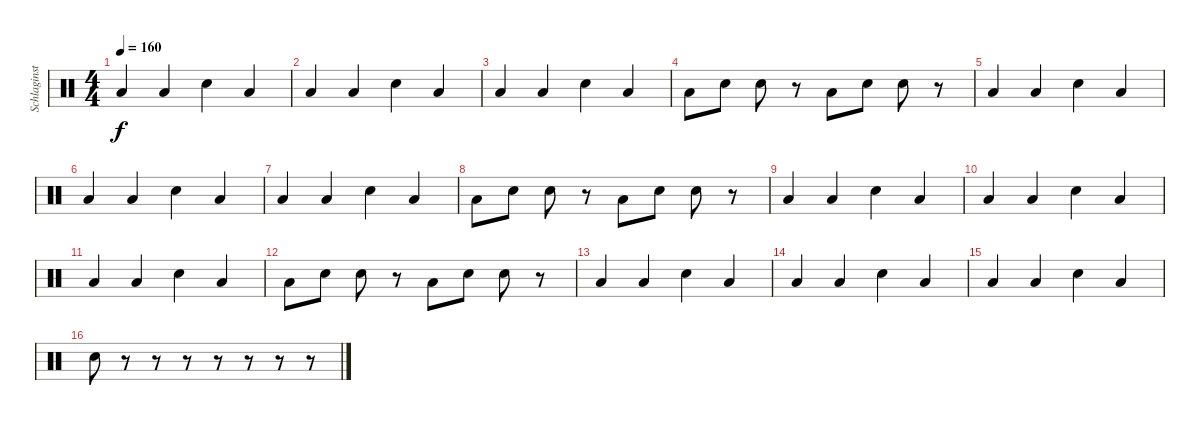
\track ("Schlaginstrumente - Auswahl" "Schlaginst") {instrument percussion}
\staff {score}
\articulation defaults
\ts (4 4)
\tempo 160
\clef neutral
\ks c "Low Floor Tom (hit)".4{dy f} "Low Floor Tom (hit)".4 "Snare (hit) 2".4 "Low Floor Tom (hit)".4
|
"Low Floor Tom (hit)".4 "Low Floor Tom (hit)".4 "Snare (hit) 2".4 "Low Floor Tom (hit)".4 |
"Low Floor Tom (hit)".4 "Low Floor Tom (hit)".4 "Snare (hit) 2".4 "Low Floor Tom (hit)".4 |
"Low Floor Tom (hit)".8 "Snare (hit) 2".8 "Snare (hit) 2".8 r.8 "Low Floor Tom (hit)".8 "Snare (hit) 2".8 "Snare (hit) 2".8 r.8 |
"Low Floor Tom (hit)".4 "Low Floor Tom (hit)".4 "Snare (hit) 2".4 "Low Floor Tom (hit)".4 |
"Low Floor Tom (hit)".4 "Low Floor Tom (hit)".4 "Snare (hit) 2".4 "Low Floor Tom (hit)".4 |
"Low Floor Tom (hit)".4 "Low Floor Tom (hit)".4 "Snare (hit) 2".4 "Low Floor Tom (hit)".4 |
"Low Floor Tom (hit)".8 "Snare (hit) 2".8 "Snare (hit) 2".8 r.8 "Low Floor Tom (hit)".8 "Snare (hit) 2".8 "Snare (hit) 2".8 r.8 |
"Low Floor Tom (hit)".4 "Low Floor Tom (hit)".4 "Snare (hit) 2".4 "Low Floor Tom (hit)".4 |
"Low Floor Tom (hit)".4 "Low Floor Tom (hit)".4 "Snare (hit) 2".4 "Low Floor Tom (hit)".4 |
"Low Floor Tom (hit)".4 "Low Floor Tom (hit)".4 "Snare (hit) 2".4 "Low Floor Tom (hit)".4 |
"Low Floor Tom (hit)".8 "Snare (hit) 2".8 "Snare (hit) 2".8 r.8 "Low Floor Tom (hit)".8 "Snare (hit) 2".8 "Snare (hit) 2".8 r.8 |
"Low Floor Tom (hit)".4 "Low Floor Tom (hit)".4 "Snare (hit) 2".4 "Low Floor Tom (hit)".4 |
"Low Floor Tom (hit)".4 "Low Floor Tom (hit)".4 "Snare (hit) 2".4 "Low Floor Tom (hit)".4 |
"Low Floor Tom (hit)".4 "Low Floor Tom (hit)".4 "Snare (hit) 2".4 "Low Floor Tom (hit)".4 |
"Snare (hit) 2".8 r.8 r.8 r.8 r.8 r.8 r.8 r.8
